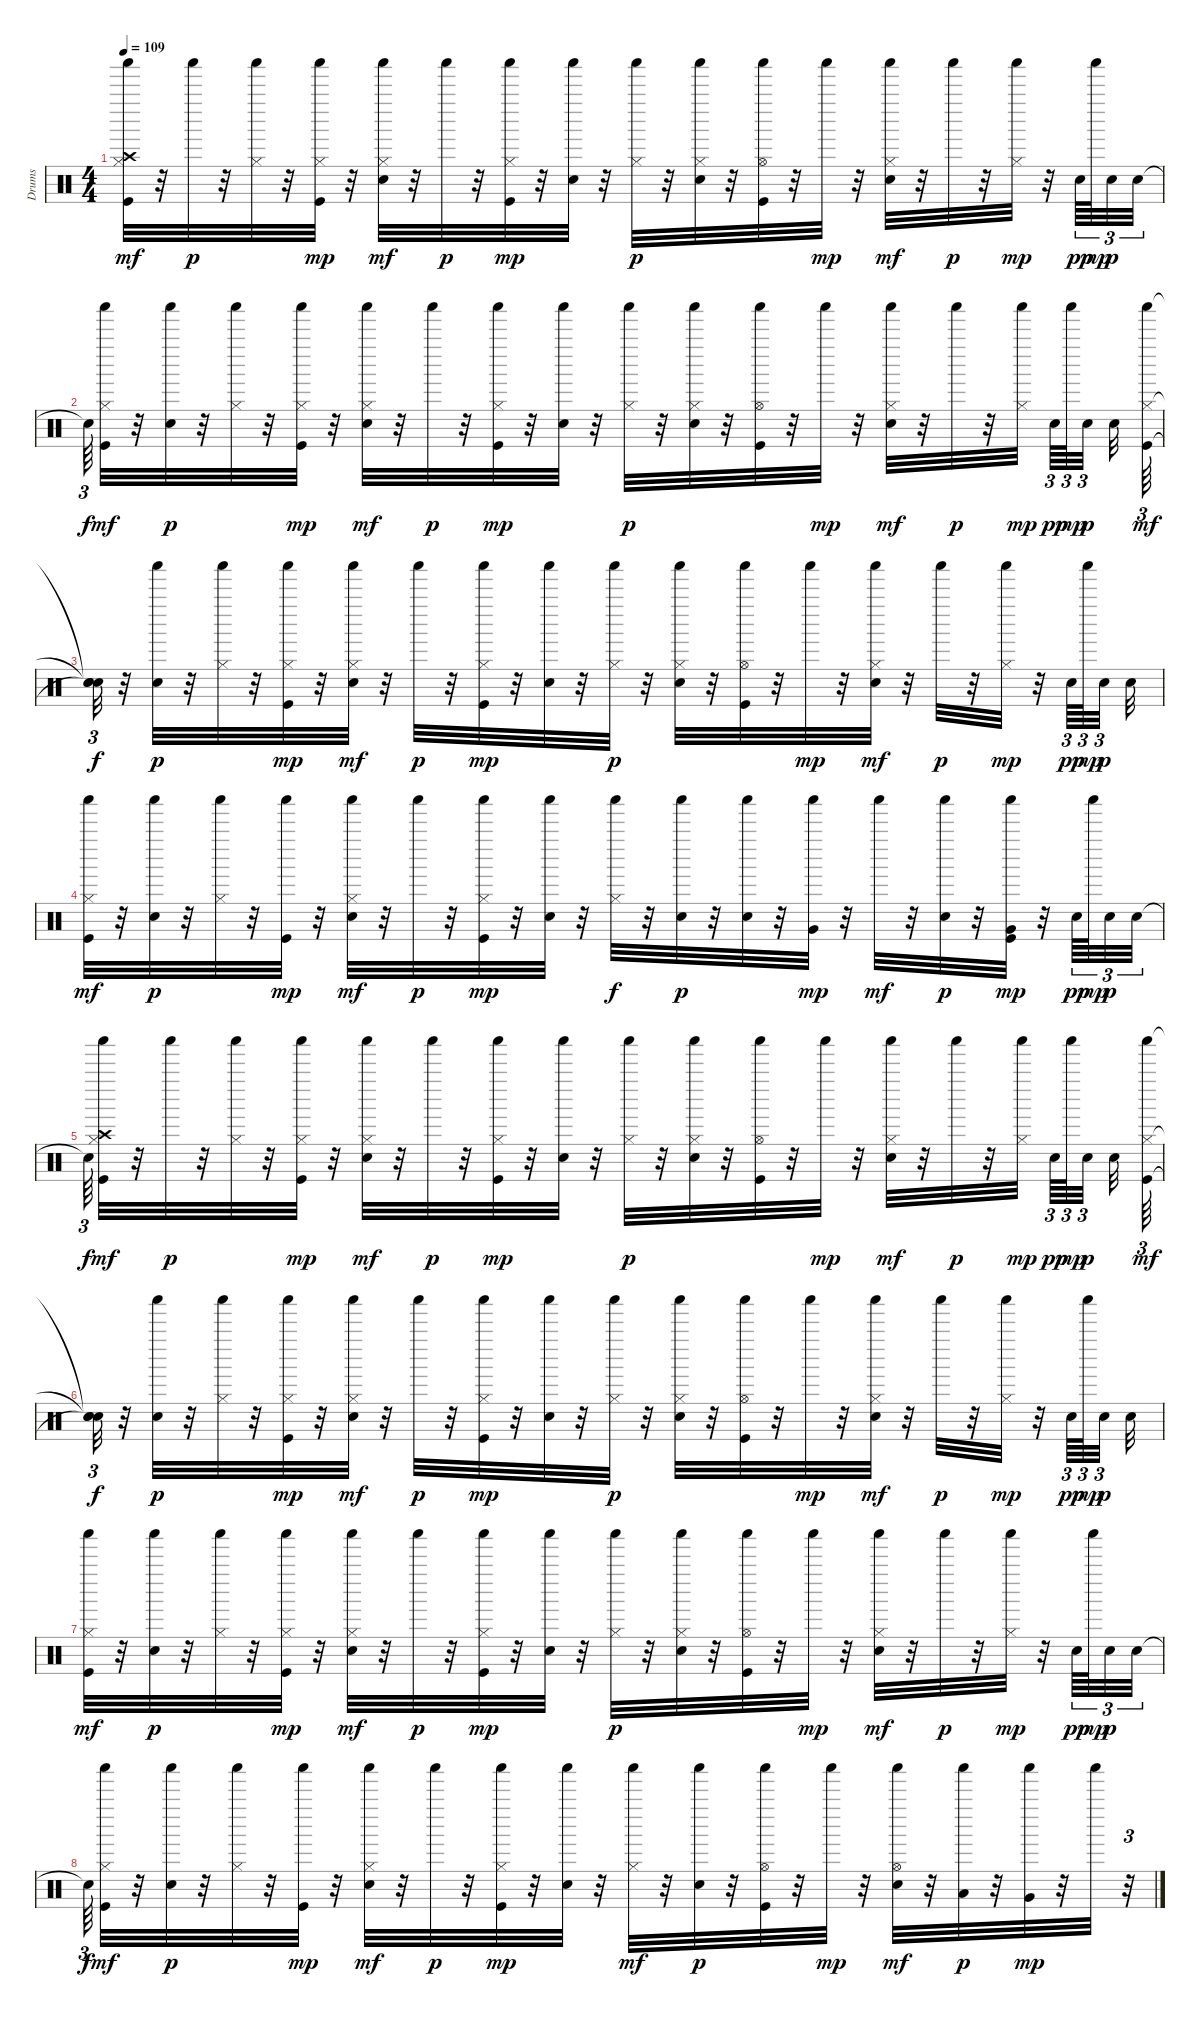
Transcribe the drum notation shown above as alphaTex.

\track ("Drums" "Drums") {instrument percussion}
\staff {score}
\articulation defaults
\ts (4 4)
\tempo 109
\clef neutral
\ks c
("Kick (hit)" "Crash high (hit)" "Hi-Hat (closed)" "Shaker (hit)").32{dy mf} r.32 "Shaker (hit)".32{dy p} r.32 ("Hi-Hat (closed)" "Shaker (hit)").32 r.32 ("Kick (hit)" "Hi-Hat (closed)" "Shaker (hit)").32{dy mp} r.32 ("Snare (hit) 2" "Hi-Hat (closed)" "Shaker (hit)").32{dy mf} r.32 "Shaker (hit)".32{dy p} r.32 ("Kick (hit)" "Hi-Hat (closed)" "Shaker (hit)").32{dy mp} r.32 ("Snare (hit) 2" "Shaker (hit)").32 r.32 ("Hi-Hat (closed)" "Shaker (hit)").32{dy p} r.32 ("Snare (hit) 2" "Hi-Hat (closed)" "Shaker (hit)").32 r.32 ("Kick (hit)" "Hi-Hat (open)" "Shaker (hit)").32 r.32 "Shaker (hit)".32{dy mp} r.32 ("Snare (hit) 2" "Hi-Hat (closed)" "Shaker (hit)").32{dy mf} r.32 "Shaker (hit)".32{dy p} r.32 ("Hi-Hat (closed)" "Shaker (hit)").32{dy mp} r.32 "Snare (hit) 2".64{tu (3 2) dy pp} "Shaker (hit)".64{tu (3 2) dy mp} "Snare (hit) 2".32{tu (3 2) dy p} "Snare (hit) 2".32{tu (3 2)} |
"Snare (hit)"{t}.64{tu (3 2) dy f} ("Kick (hit)" "Hi-Hat (closed)" "Shaker (hit)").32{dy mf} r.32 ("Snare (hit) 2" "Shaker (hit)").32{dy p} r.32 ("Hi-Hat (closed)" "Shaker (hit)").32 r.32 ("Kick (hit)" "Hi-Hat (closed)" "Shaker (hit)").32{dy mp} r.32 ("Snare (hit) 2" "Hi-Hat (closed)" "Shaker (hit)").32{dy mf} r.32 "Shaker (hit)".32{dy p} r.32 ("Kick (hit)" "Hi-Hat (closed)" "Shaker (hit)").32{dy mp} r.32 ("Snare (hit) 2" "Shaker (hit)").32 r.32 ("Hi-Hat (closed)" "Shaker (hit)").32{dy p} r.32 ("Snare (hit) 2" "Hi-Hat (closed)" "Shaker (hit)").32 r.32 ("Kick (hit)" "Hi-Hat (open)" "Shaker (hit)").32 r.32 "Shaker (hit)".32{dy mp} r.32 ("Snare (hit) 2" "Hi-Hat (closed)" "Shaker (hit)").32{dy mf} r.32 "Shaker (hit)".32{dy p} r.32 ("Hi-Hat (closed)" "Shaker (hit)").32{dy mp beam splitsecondary} "Snare (hit) 2".64{tu (3 2) dy pp} "Shaker (hit)".64{tu (3 2) dy mp} "Snare (hit) 2".32{tu (3 2) dy p beam splitsecondary} "Snare (hit) 2".32 ("Kick (hit)" "Hi-Hat (closed)" "Shaker (hit)").64{tu (3 2) dy mf} |
("Snare (hit)"{t} "Snare (hit)"{t} "Snare (hit)"{t}).32{tu (3 2) dy f} r.32 ("Snare (hit) 2" "Shaker (hit)").32{dy p} r.32 ("Hi-Hat (closed)" "Shaker (hit)").32 r.32 ("Kick (hit)" "Hi-Hat (closed)" "Shaker (hit)").32{dy mp} r.32 ("Snare (hit) 2" "Hi-Hat (closed)" "Shaker (hit)").32{dy mf} r.32 "Shaker (hit)".32{dy p} r.32 ("Kick (hit)" "Hi-Hat (closed)" "Shaker (hit)").32{dy mp} r.32 ("Snare (hit) 2" "Shaker (hit)").32 r.32 ("Hi-Hat (closed)" "Shaker (hit)").32{dy p} r.32 ("Snare (hit) 2" "Hi-Hat (closed)" "Shaker (hit)").32 r.32 ("Kick (hit)" "Hi-Hat (open)" "Shaker (hit)").32 r.32 "Shaker (hit)".32{dy mp} r.32 ("Snare (hit) 2" "Hi-Hat (closed)" "Shaker (hit)").32{dy mf} r.32 "Shaker (hit)".32{dy p} r.32 ("Hi-Hat (closed)" "Shaker (hit)").32{dy mp} r.32 "Snare (hit) 2".64{tu (3 2) dy pp} "Shaker (hit)".64{tu (3 2) dy mp} "Snare (hit) 2".32{tu (3 2) dy p beam splitsecondary} "Snare (hit) 2".32 |
("Kick (hit)" "Hi-Hat (closed)" "Shaker (hit)").32{dy mf} r.32 ("Snare (hit) 2" "Shaker (hit)").32{dy p} r.32 ("Hi-Hat (closed)" "Shaker (hit)").32 r.32 ("Kick (hit)" "Shaker (hit)").32{dy mp} r.32 ("Snare (hit) 2" "Hi-Hat (closed)" "Shaker (hit)").32{dy mf} r.32 "Shaker (hit)".32{dy p} r.32 ("Kick (hit)" "Hi-Hat (closed)" "Shaker (hit)").32{dy mp} r.32 ("Snare (hit) 2" "Shaker (hit)").32 r.32 ("Hi-Hat (closed)" "Shaker (hit)").32{dy f} r.32 ("Snare (hit) 2" "Shaker (hit)").32{dy p} r.32 ("Snare (hit) 2" "Shaker (hit)").32 r.32 ("Very Low Tom (hit)" "Shaker (hit)").32{dy mp} r.32 "Shaker (hit)".32{dy mf} r.32 ("Snare (hit) 2" "Shaker (hit)").32{dy p} r.32 ("Kick (hit)" "Very Low Tom (hit)" "Shaker (hit)").32{dy mp} r.32 "Snare (hit) 2".64{tu (3 2) dy pp} "Shaker (hit)".64{tu (3 2) dy mp} "Snare (hit) 2".32{tu (3 2) dy p} "Snare (hit) 2".32{tu (3 2)} |
"Snare (hit)"{t}.64{tu (3 2) dy f} ("Kick (hit)" "Crash high (hit)" "Hi-Hat (closed)" "Shaker (hit)").32{dy mf} r.32 "Shaker (hit)".32{dy p} r.32 ("Hi-Hat (closed)" "Shaker (hit)").32 r.32 ("Kick (hit)" "Hi-Hat (closed)" "Shaker (hit)").32{dy mp} r.32 ("Snare (hit) 2" "Hi-Hat (closed)" "Shaker (hit)").32{dy mf} r.32 "Shaker (hit)".32{dy p} r.32 ("Kick (hit)" "Hi-Hat (closed)" "Shaker (hit)").32{dy mp} r.32 ("Snare (hit) 2" "Shaker (hit)").32 r.32 ("Hi-Hat (closed)" "Shaker (hit)").32{dy p} r.32 ("Snare (hit) 2" "Hi-Hat (closed)" "Shaker (hit)").32 r.32 ("Kick (hit)" "Hi-Hat (open)" "Shaker (hit)").32 r.32 "Shaker (hit)".32{dy mp} r.32 ("Snare (hit) 2" "Hi-Hat (closed)" "Shaker (hit)").32{dy mf} r.32 "Shaker (hit)".32{dy p} r.32 ("Hi-Hat (closed)" "Shaker (hit)").32{dy mp beam splitsecondary} "Snare (hit) 2".64{tu (3 2) dy pp} "Shaker (hit)".64{tu (3 2) dy mp} "Snare (hit) 2".32{tu (3 2) dy p beam splitsecondary} "Snare (hit) 2".32 ("Kick (hit)" "Hi-Hat (closed)" "Shaker (hit)").64{tu (3 2) dy mf} |
("Snare (hit)"{t} "Snare (hit)"{t} "Snare (hit)"{t}).32{tu (3 2) dy f} r.32 ("Snare (hit) 2" "Shaker (hit)").32{dy p} r.32 ("Hi-Hat (closed)" "Shaker (hit)").32 r.32 ("Kick (hit)" "Hi-Hat (closed)" "Shaker (hit)").32{dy mp} r.32 ("Snare (hit) 2" "Hi-Hat (closed)" "Shaker (hit)").32{dy mf} r.32 "Shaker (hit)".32{dy p} r.32 ("Kick (hit)" "Hi-Hat (closed)" "Shaker (hit)").32{dy mp} r.32 ("Snare (hit) 2" "Shaker (hit)").32 r.32 ("Hi-Hat (closed)" "Shaker (hit)").32{dy p} r.32 ("Snare (hit) 2" "Hi-Hat (closed)" "Shaker (hit)").32 r.32 ("Kick (hit)" "Hi-Hat (open)" "Shaker (hit)").32 r.32 "Shaker (hit)".32{dy mp} r.32 ("Snare (hit) 2" "Hi-Hat (closed)" "Shaker (hit)").32{dy mf} r.32 "Shaker (hit)".32{dy p} r.32 ("Hi-Hat (closed)" "Shaker (hit)").32{dy mp} r.32 "Snare (hit) 2".64{tu (3 2) dy pp} "Shaker (hit)".64{tu (3 2) dy mp} "Snare (hit) 2".32{tu (3 2) dy p beam splitsecondary} "Snare (hit) 2".32 |
("Kick (hit)" "Hi-Hat (closed)" "Shaker (hit)").32{dy mf} r.32 ("Snare (hit) 2" "Shaker (hit)").32{dy p} r.32 ("Hi-Hat (closed)" "Shaker (hit)").32 r.32 ("Kick (hit)" "Hi-Hat (closed)" "Shaker (hit)").32{dy mp} r.32 ("Snare (hit) 2" "Hi-Hat (closed)" "Shaker (hit)").32{dy mf} r.32 "Shaker (hit)".32{dy p} r.32 ("Kick (hit)" "Hi-Hat (closed)" "Shaker (hit)").32{dy mp} r.32 ("Snare (hit) 2" "Shaker (hit)").32 r.32 ("Hi-Hat (closed)" "Shaker (hit)").32{dy p} r.32 ("Snare (hit) 2" "Hi-Hat (closed)" "Shaker (hit)").32 r.32 ("Kick (hit)" "Hi-Hat (open)" "Shaker (hit)").32 r.32 "Shaker (hit)".32{dy mp} r.32 ("Snare (hit) 2" "Hi-Hat (closed)" "Shaker (hit)").32{dy mf} r.32 "Shaker (hit)".32{dy p} r.32 ("Hi-Hat (closed)" "Shaker (hit)").32{dy mp} r.32 "Snare (hit) 2".64{tu (3 2) dy pp} "Shaker (hit)".64{tu (3 2) dy mp} "Snare (hit) 2".32{tu (3 2) dy p} "Snare (hit) 2".32{tu (3 2)} |
"Snare (hit)"{t}.64{tu (3 2) dy f} ("Kick (hit)" "Hi-Hat (closed)" "Shaker (hit)").32{dy mf} r.32 ("Snare (hit) 2" "Shaker (hit)").32{dy p} r.32 ("Hi-Hat (closed)" "Shaker (hit)").32 r.32 ("Kick (hit)" "Shaker (hit)").32{dy mp} r.32 ("Snare (hit) 2" "Hi-Hat (closed)" "Shaker (hit)").32{dy mf} r.32 "Shaker (hit)".32{dy p} r.32 ("Kick (hit)" "Hi-Hat (closed)" "Shaker (hit)").32{dy mp} r.32 ("Snare (hit) 2" "Shaker (hit)").32 r.32 ("Hi-Hat (closed)" "Shaker (hit)").32{dy mf} r.32 ("Snare (hit) 2" "Shaker (hit)").32{dy p} r.32 ("Kick (hit)" "Hi-Hat (open)" "Shaker (hit)").32 r.32 "Shaker (hit)".32{dy mp} r.32 ("Snare (hit) 2" "Hi-Hat (open)" "Shaker (hit)").32{dy mf} r.32 ("Low Floor Tom (hit)" "Shaker (hit)").32{dy p} r.32 ("Very Low Tom (hit)" "Shaker (hit)").32{dy mp} r.32 "Shaker (hit)".32 r.32{tu (3 2)}
